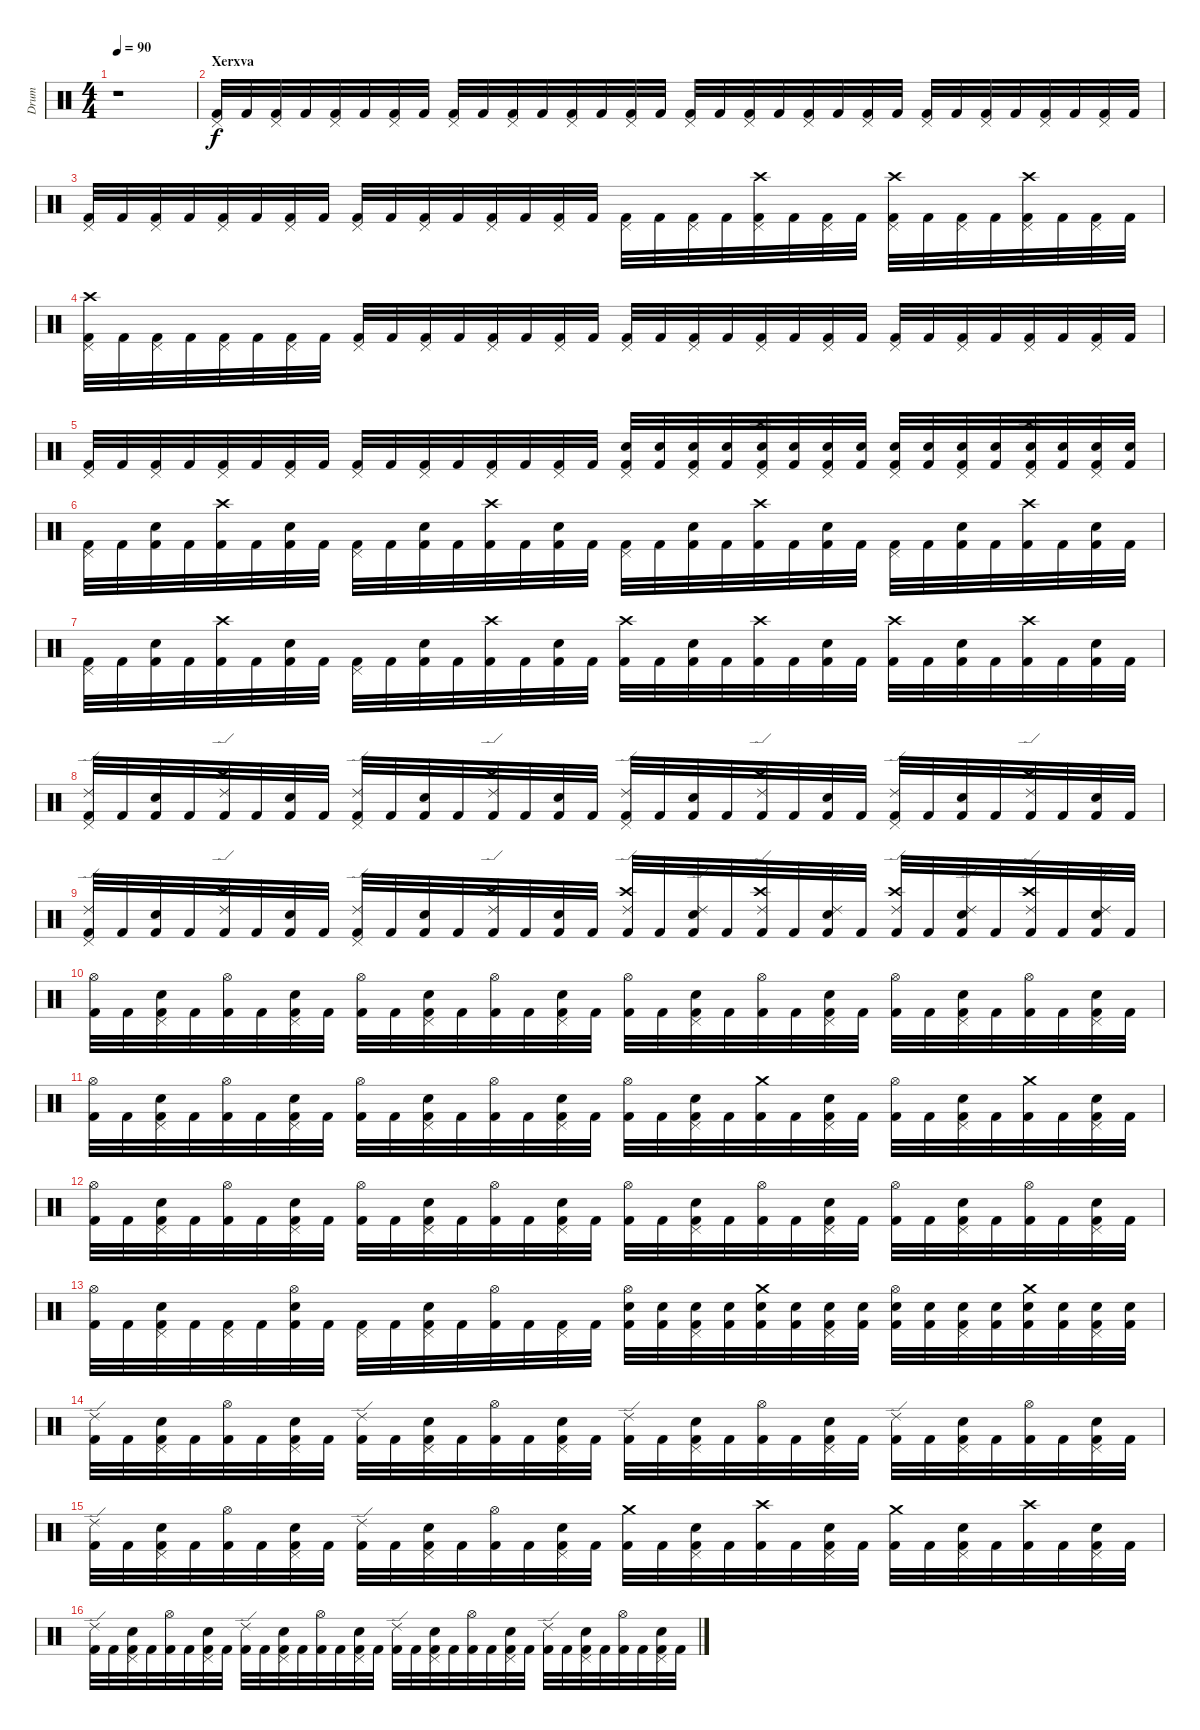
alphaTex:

\track ("Drum" "Drum") {instrument percussion}
\staff {score}
\articulation defaults
\ts (4 4)
\tempo 90
\clef neutral
\ks c
r.1{dy f} |
\section ("" "Xerxva")
("Kick (hit) 2" "Pedal Hi-Hat (hit)").32 "Kick (hit) 2".32 ("Kick (hit) 2" "Pedal Hi-Hat (hit)").32 "Kick (hit) 2".32 ("Kick (hit) 2" "Pedal Hi-Hat (hit)").32 "Kick (hit) 2".32 ("Kick (hit) 2" "Pedal Hi-Hat (hit)").32 "Kick (hit) 2".32 ("Kick (hit) 2" "Pedal Hi-Hat (hit)").32 "Kick (hit) 2".32 ("Kick (hit) 2" "Pedal Hi-Hat (hit)").32 "Kick (hit) 2".32 ("Kick (hit) 2" "Pedal Hi-Hat (hit)").32 "Kick (hit) 2".32 ("Kick (hit) 2" "Pedal Hi-Hat (hit)").32 "Kick (hit) 2".32 ("Kick (hit) 2" "Pedal Hi-Hat (hit)").32 "Kick (hit) 2".32 ("Kick (hit) 2" "Pedal Hi-Hat (hit)").32 "Kick (hit) 2".32 ("Kick (hit) 2" "Pedal Hi-Hat (hit)").32 "Kick (hit) 2".32 ("Kick (hit) 2" "Pedal Hi-Hat (hit)").32 "Kick (hit) 2".32 ("Kick (hit) 2" "Pedal Hi-Hat (hit)").32 "Kick (hit) 2".32 ("Kick (hit) 2" "Pedal Hi-Hat (hit)").32 "Kick (hit) 2".32 ("Kick (hit) 2" "Pedal Hi-Hat (hit)").32 "Kick (hit) 2".32 ("Kick (hit) 2" "Pedal Hi-Hat (hit)").32 "Kick (hit) 2".32 |
("Kick (hit) 2" "Pedal Hi-Hat (hit)").32 "Kick (hit) 2".32 ("Kick (hit) 2" "Pedal Hi-Hat (hit)").32 "Kick (hit) 2".32 ("Kick (hit) 2" "Pedal Hi-Hat (hit)").32 "Kick (hit) 2".32 ("Kick (hit) 2" "Pedal Hi-Hat (hit)").32 "Kick (hit) 2".32 ("Kick (hit) 2" "Pedal Hi-Hat (hit)").32 "Kick (hit) 2".32 ("Kick (hit) 2" "Pedal Hi-Hat (hit)").32 "Kick (hit) 2".32 ("Kick (hit) 2" "Pedal Hi-Hat (hit)").32 "Kick (hit) 2".32 ("Kick (hit) 2" "Pedal Hi-Hat (hit)").32 "Kick (hit) 2".32 ("Kick (hit) 2" "Pedal Hi-Hat (hit)").32 "Kick (hit) 2".32 ("Kick (hit) 2" "Pedal Hi-Hat (hit)").32 "Kick (hit) 2".32 ("Kick (hit) 2" "Pedal Hi-Hat (hit)" "Crash high (hit)").32 "Kick (hit) 2".32 ("Kick (hit) 2" "Pedal Hi-Hat (hit)").32 "Kick (hit) 2".32 ("Kick (hit) 2" "Pedal Hi-Hat (hit)" "Crash high (hit)").32 "Kick (hit) 2".32 ("Kick (hit) 2" "Pedal Hi-Hat (hit)").32 "Kick (hit) 2".32 ("Kick (hit) 2" "Pedal Hi-Hat (hit)" "Crash high (hit)").32 "Kick (hit) 2".32 ("Kick (hit) 2" "Pedal Hi-Hat (hit)").32 "Kick (hit) 2".32 |
("Kick (hit) 2" "Pedal Hi-Hat (hit)" "Crash high (hit)").32 "Kick (hit) 2".32 ("Kick (hit) 2" "Pedal Hi-Hat (hit)").32 "Kick (hit) 2".32 ("Kick (hit) 2" "Pedal Hi-Hat (hit)").32 "Kick (hit) 2".32 ("Kick (hit) 2" "Pedal Hi-Hat (hit)").32 "Kick (hit) 2".32 ("Kick (hit) 2" "Pedal Hi-Hat (hit)").32 "Kick (hit) 2".32 ("Kick (hit) 2" "Pedal Hi-Hat (hit)").32 "Kick (hit) 2".32 ("Kick (hit) 2" "Pedal Hi-Hat (hit)").32 "Kick (hit) 2".32 ("Kick (hit) 2" "Pedal Hi-Hat (hit)").32 "Kick (hit) 2".32 ("Kick (hit) 2" "Pedal Hi-Hat (hit)").32 "Kick (hit) 2".32 ("Kick (hit) 2" "Pedal Hi-Hat (hit)").32 "Kick (hit) 2".32 ("Kick (hit) 2" "Pedal Hi-Hat (hit)").32 "Kick (hit) 2".32 ("Kick (hit) 2" "Pedal Hi-Hat (hit)").32 "Kick (hit) 2".32 ("Kick (hit) 2" "Pedal Hi-Hat (hit)").32 "Kick (hit) 2".32 ("Kick (hit) 2" "Pedal Hi-Hat (hit)").32 "Kick (hit) 2".32 ("Kick (hit) 2" "Pedal Hi-Hat (hit)").32 "Kick (hit) 2".32 ("Kick (hit) 2" "Pedal Hi-Hat (hit)").32 "Kick (hit) 2".32 |
("Kick (hit) 2" "Pedal Hi-Hat (hit)").32 "Kick (hit) 2".32 ("Kick (hit) 2" "Pedal Hi-Hat (hit)").32 "Kick (hit) 2".32 ("Kick (hit) 2" "Pedal Hi-Hat (hit)").32 "Kick (hit) 2".32 ("Kick (hit) 2" "Pedal Hi-Hat (hit)").32 "Kick (hit) 2".32 ("Kick (hit) 2" "Pedal Hi-Hat (hit)").32 "Kick (hit) 2".32 ("Kick (hit) 2" "Pedal Hi-Hat (hit)").32 "Kick (hit) 2".32 ("Kick (hit) 2" "Pedal Hi-Hat (hit)").32 "Kick (hit) 2".32 ("Kick (hit) 2" "Pedal Hi-Hat (hit)").32 "Kick (hit) 2".32 ("Kick (hit) 2" "Pedal Hi-Hat (hit)" "Snare (hit) 2").32 ("Kick (hit) 2" "Snare (hit) 2").32 ("Kick (hit) 2" "Pedal Hi-Hat (hit)" "Snare (hit) 2").32 ("Kick (hit) 2" "Snare (hit) 2").32 ("Kick (hit) 2" "Pedal Hi-Hat (hit)" "Snare (hit) 2" "Crash high (hit)").32 ("Kick (hit) 2" "Snare (hit) 2").32 ("Kick (hit) 2" "Pedal Hi-Hat (hit)" "Snare (hit) 2").32 ("Kick (hit) 2" "Snare (hit) 2").32 ("Kick (hit) 2" "Pedal Hi-Hat (hit)" "Snare (hit) 2").32 ("Kick (hit) 2" "Snare (hit) 2").32 ("Kick (hit) 2" "Pedal Hi-Hat (hit)" "Snare (hit) 2").32 ("Kick (hit) 2" "Snare (hit) 2").32 ("Kick (hit) 2" "Pedal Hi-Hat (hit)" "Snare (hit) 2" "Crash high (hit)").32 ("Kick (hit) 2" "Snare (hit) 2").32 ("Kick (hit) 2" "Pedal Hi-Hat (hit)" "Snare (hit) 2").32 ("Kick (hit) 2" "Snare (hit) 2").32 |
("Kick (hit) 2" "Pedal Hi-Hat (hit)").32 "Kick (hit) 2".32 ("Kick (hit) 2" "Snare (hit) 2").32 "Kick (hit) 2".32 ("Kick (hit) 2" "Crash high (hit)").32 "Kick (hit) 2".32 ("Kick (hit) 2" "Snare (hit) 2").32 "Kick (hit) 2".32 ("Kick (hit) 2" "Pedal Hi-Hat (hit)").32 "Kick (hit) 2".32 ("Kick (hit) 2" "Snare (hit) 2").32 "Kick (hit) 2".32 ("Kick (hit) 2" "Crash high (hit)").32 "Kick (hit) 2".32 ("Kick (hit) 2" "Snare (hit) 2").32 "Kick (hit) 2".32 ("Kick (hit) 2" "Pedal Hi-Hat (hit)").32 "Kick (hit) 2".32 ("Kick (hit) 2" "Snare (hit) 2").32 "Kick (hit) 2".32 ("Kick (hit) 2" "Crash high (hit)").32 "Kick (hit) 2".32 ("Kick (hit) 2" "Snare (hit) 2").32 "Kick (hit) 2".32 ("Kick (hit) 2" "Pedal Hi-Hat (hit)").32 "Kick (hit) 2".32 ("Kick (hit) 2" "Snare (hit) 2").32 "Kick (hit) 2".32 ("Kick (hit) 2" "Crash high (hit)").32 "Kick (hit) 2".32 ("Kick (hit) 2" "Snare (hit) 2").32 "Kick (hit) 2".32 |
("Kick (hit) 2" "Pedal Hi-Hat (hit)").32 "Kick (hit) 2".32 ("Kick (hit) 2" "Snare (hit) 2").32 "Kick (hit) 2".32 ("Kick (hit) 2" "Crash high (hit)").32 "Kick (hit) 2".32 ("Kick (hit) 2" "Snare (hit) 2").32 "Kick (hit) 2".32 ("Kick (hit) 2" "Pedal Hi-Hat (hit)").32 "Kick (hit) 2".32 ("Kick (hit) 2" "Snare (hit) 2").32 "Kick (hit) 2".32 ("Kick (hit) 2" "Crash high (hit)").32 "Kick (hit) 2".32 ("Kick (hit) 2" "Snare (hit) 2").32 "Kick (hit) 2".32 ("Kick (hit) 2" "Crash high (hit)").32 "Kick (hit) 2".32 ("Kick (hit) 2" "Snare (hit) 2").32 "Kick (hit) 2".32 ("Kick (hit) 2" "Crash high (hit)").32 "Kick (hit) 2".32 ("Kick (hit) 2" "Snare (hit) 2").32 "Kick (hit) 2".32 ("Kick (hit) 2" "Crash high (hit)").32 "Kick (hit) 2".32 ("Kick (hit) 2" "Snare (hit) 2").32 "Kick (hit) 2".32 ("Kick (hit) 2" "Crash high (hit)").32 "Kick (hit) 2".32 ("Kick (hit) 2" "Snare (hit) 2").32 "Kick (hit) 2".32 |
("Kick (hit) 2" "Pedal Hi-Hat (hit)" "Ride (edge) 2").32 "Kick (hit) 2".32 ("Kick (hit) 2" "Snare (hit) 2").32 "Kick (hit) 2".32 ("Kick (hit) 2" "Crash high (hit)" "Ride (edge) 2").32 "Kick (hit) 2".32 ("Kick (hit) 2" "Snare (hit) 2").32 "Kick (hit) 2".32 ("Kick (hit) 2" "Pedal Hi-Hat (hit)" "Ride (edge) 2").32 "Kick (hit) 2".32 ("Kick (hit) 2" "Snare (hit) 2").32 "Kick (hit) 2".32 ("Kick (hit) 2" "Crash high (hit)" "Ride (edge) 2").32 "Kick (hit) 2".32 ("Kick (hit) 2" "Snare (hit) 2").32 "Kick (hit) 2".32 ("Kick (hit) 2" "Pedal Hi-Hat (hit)" "Ride (edge) 2").32 "Kick (hit) 2".32 ("Kick (hit) 2" "Snare (hit) 2").32 "Kick (hit) 2".32 ("Kick (hit) 2" "Crash high (hit)" "Ride (edge) 2").32 "Kick (hit) 2".32 ("Kick (hit) 2" "Snare (hit) 2").32 "Kick (hit) 2".32 ("Kick (hit) 2" "Pedal Hi-Hat (hit)" "Ride (edge) 2").32 "Kick (hit) 2".32 ("Kick (hit) 2" "Snare (hit) 2").32 "Kick (hit) 2".32 ("Kick (hit) 2" "Crash high (hit)" "Ride (edge) 2").32 "Kick (hit) 2".32 ("Kick (hit) 2" "Snare (hit) 2").32 "Kick (hit) 2".32 |
("Kick (hit) 2" "Pedal Hi-Hat (hit)" "Ride (edge) 2").32 "Kick (hit) 2".32 ("Kick (hit) 2" "Snare (hit) 2").32 "Kick (hit) 2".32 ("Kick (hit) 2" "Crash high (hit)" "Ride (edge) 2").32 "Kick (hit) 2".32 ("Kick (hit) 2" "Snare (hit) 2").32 "Kick (hit) 2".32 ("Kick (hit) 2" "Pedal Hi-Hat (hit)" "Ride (edge) 2").32 "Kick (hit) 2".32 ("Kick (hit) 2" "Snare (hit) 2").32 "Kick (hit) 2".32 ("Kick (hit) 2" "Crash high (hit)" "Ride (edge) 2").32 "Kick (hit) 2".32 ("Kick (hit) 2" "Snare (hit) 2").32 "Kick (hit) 2".32 ("Kick (hit) 2" "Crash high (hit)" "Ride (edge) 2").32 "Kick (hit) 2".32 ("Kick (hit) 2" "Snare (hit) 2" "Ride (edge) 2").32 "Kick (hit) 2".32 ("Kick (hit) 2" "Crash high (hit)" "Ride (edge) 2").32 "Kick (hit) 2".32 ("Kick (hit) 2" "Snare (hit) 2" "Ride (edge) 2").32 "Kick (hit) 2".32 ("Kick (hit) 2" "Crash high (hit)" "Ride (edge) 2").32 "Kick (hit) 2".32 ("Kick (hit) 2" "Snare (hit) 2" "Ride (edge) 2").32 "Kick (hit) 2".32 ("Kick (hit) 2" "Crash high (hit)" "Ride (edge) 2").32 "Kick (hit) 2".32 ("Kick (hit) 2" "Snare (hit) 2" "Ride (edge) 2").32 "Kick (hit) 2".32 |
\section ("" "")
("Kick (hit) 2" "Hi-Hat (open)").32 "Kick (hit) 2".32 ("Kick (hit) 2" "Pedal Hi-Hat (hit)" "Snare (hit) 2").32 "Kick (hit) 2".32 ("Kick (hit) 2" "Hi-Hat (open)").32 "Kick (hit) 2".32 ("Kick (hit) 2" "Pedal Hi-Hat (hit)" "Snare (hit) 2").32 "Kick (hit) 2".32 ("Kick (hit) 2" "Hi-Hat (open)").32 "Kick (hit) 2".32 ("Kick (hit) 2" "Pedal Hi-Hat (hit)" "Snare (hit) 2").32 "Kick (hit) 2".32 ("Kick (hit) 2" "Hi-Hat (open)").32 "Kick (hit) 2".32 ("Kick (hit) 2" "Pedal Hi-Hat (hit)" "Snare (hit) 2").32 "Kick (hit) 2".32 ("Kick (hit) 2" "Hi-Hat (open)").32 "Kick (hit) 2".32 ("Kick (hit) 2" "Pedal Hi-Hat (hit)" "Snare (hit) 2").32 "Kick (hit) 2".32 ("Kick (hit) 2" "Hi-Hat (open)").32 "Kick (hit) 2".32 ("Kick (hit) 2" "Pedal Hi-Hat (hit)" "Snare (hit) 2").32 "Kick (hit) 2".32 ("Kick (hit) 2" "Hi-Hat (open)").32 "Kick (hit) 2".32 ("Kick (hit) 2" "Pedal Hi-Hat (hit)" "Snare (hit) 2").32 "Kick (hit) 2".32 ("Kick (hit) 2" "Hi-Hat (open)").32 "Kick (hit) 2".32 ("Kick (hit) 2" "Pedal Hi-Hat (hit)" "Snare (hit) 2").32 "Kick (hit) 2".32 |
("Kick (hit) 2" "Hi-Hat (open)").32 "Kick (hit) 2".32 ("Kick (hit) 2" "Pedal Hi-Hat (hit)" "Snare (hit) 2").32 "Kick (hit) 2".32 ("Kick (hit) 2" "Hi-Hat (open)").32 "Kick (hit) 2".32 ("Kick (hit) 2" "Pedal Hi-Hat (hit)" "Snare (hit) 2").32 "Kick (hit) 2".32 ("Kick (hit) 2" "Hi-Hat (open)").32 "Kick (hit) 2".32 ("Kick (hit) 2" "Pedal Hi-Hat (hit)" "Snare (hit) 2").32 "Kick (hit) 2".32 ("Kick (hit) 2" "Hi-Hat (open)").32 "Kick (hit) 2".32 ("Kick (hit) 2" "Pedal Hi-Hat (hit)" "Snare (hit) 2").32 "Kick (hit) 2".32 ("Kick (hit) 2" "Hi-Hat (open)").32 "Kick (hit) 2".32 ("Kick (hit) 2" "Pedal Hi-Hat (hit)" "Snare (hit) 2").32 "Kick (hit) 2".32 ("Kick (hit) 2" "Crash medium (hit)").32 "Kick (hit) 2".32 ("Kick (hit) 2" "Pedal Hi-Hat (hit)" "Snare (hit) 2").32 "Kick (hit) 2".32 ("Kick (hit) 2" "Hi-Hat (open)").32 "Kick (hit) 2".32 ("Kick (hit) 2" "Pedal Hi-Hat (hit)" "Snare (hit) 2").32 "Kick (hit) 2".32 ("Kick (hit) 2" "Crash medium (hit)").32 "Kick (hit) 2".32 ("Kick (hit) 2" "Pedal Hi-Hat (hit)" "Snare (hit) 2").32 "Kick (hit) 2".32 |
("Kick (hit) 2" "Hi-Hat (open)").32 "Kick (hit) 2".32 ("Kick (hit) 2" "Pedal Hi-Hat (hit)" "Snare (hit) 2").32 "Kick (hit) 2".32 ("Kick (hit) 2" "Hi-Hat (open)").32 "Kick (hit) 2".32 ("Kick (hit) 2" "Pedal Hi-Hat (hit)" "Snare (hit) 2").32 "Kick (hit) 2".32 ("Kick (hit) 2" "Hi-Hat (open)").32 "Kick (hit) 2".32 ("Kick (hit) 2" "Pedal Hi-Hat (hit)" "Snare (hit) 2").32 "Kick (hit) 2".32 ("Kick (hit) 2" "Hi-Hat (open)").32 "Kick (hit) 2".32 ("Kick (hit) 2" "Pedal Hi-Hat (hit)" "Snare (hit) 2").32 "Kick (hit) 2".32 ("Kick (hit) 2" "Hi-Hat (open)").32 "Kick (hit) 2".32 ("Kick (hit) 2" "Pedal Hi-Hat (hit)" "Snare (hit) 2").32 "Kick (hit) 2".32 ("Kick (hit) 2" "Hi-Hat (open)").32 "Kick (hit) 2".32 ("Kick (hit) 2" "Pedal Hi-Hat (hit)" "Snare (hit) 2").32 "Kick (hit) 2".32 ("Kick (hit) 2" "Hi-Hat (open)").32 "Kick (hit) 2".32 ("Kick (hit) 2" "Pedal Hi-Hat (hit)" "Snare (hit) 2").32 "Kick (hit) 2".32 ("Kick (hit) 2" "Hi-Hat (open)").32 "Kick (hit) 2".32 ("Kick (hit) 2" "Pedal Hi-Hat (hit)" "Snare (hit) 2").32 "Kick (hit) 2".32 |
("Kick (hit) 2" "Hi-Hat (open)").32 "Kick (hit) 2".32 ("Kick (hit) 2" "Pedal Hi-Hat (hit)" "Snare (hit) 2").32 "Kick (hit) 2".32 ("Kick (hit) 2" "Pedal Hi-Hat (hit)").32 "Kick (hit) 2".32 ("Kick (hit) 2" "Hi-Hat (open)" "Snare (hit) 2").32 "Kick (hit) 2".32 ("Kick (hit) 2" "Pedal Hi-Hat (hit)").32 "Kick (hit) 2".32 ("Kick (hit) 2" "Pedal Hi-Hat (hit)" "Snare (hit) 2").32 "Kick (hit) 2".32 ("Kick (hit) 2" "Hi-Hat (open)").32 "Kick (hit) 2".32 ("Kick (hit) 2" "Pedal Hi-Hat (hit)").32 "Kick (hit) 2".32 ("Kick (hit) 2" "Hi-Hat (open)" "Snare (hit) 2").32 ("Kick (hit) 2" "Snare (hit) 2").32 ("Kick (hit) 2" "Pedal Hi-Hat (hit)" "Snare (hit) 2").32 ("Kick (hit) 2" "Snare (hit) 2").32 ("Kick (hit) 2" "Crash medium (hit)" "Snare (hit) 2").32 ("Kick (hit) 2" "Snare (hit) 2").32 ("Kick (hit) 2" "Pedal Hi-Hat (hit)" "Snare (hit) 2").32 ("Kick (hit) 2" "Snare (hit) 2").32 ("Kick (hit) 2" "Hi-Hat (open)" "Snare (hit) 2").32 ("Kick (hit) 2" "Snare (hit) 2").32 ("Kick (hit) 2" "Pedal Hi-Hat (hit)" "Snare (hit) 2").32 ("Kick (hit) 2" "Snare (hit) 2").32 ("Kick (hit) 2" "Crash medium (hit)" "Snare (hit) 2").32 ("Kick (hit) 2" "Snare (hit) 2").32 ("Kick (hit) 2" "Pedal Hi-Hat (hit)" "Snare (hit) 2").32 ("Kick (hit) 2" "Snare (hit) 2").32 |
("Kick (hit) 2" "Ride (edge) 2").32 "Kick (hit) 2".32 ("Kick (hit) 2" "Pedal Hi-Hat (hit)" "Snare (hit) 2").32 "Kick (hit) 2".32 ("Kick (hit) 2" "Hi-Hat (open)").32 "Kick (hit) 2".32 ("Kick (hit) 2" "Pedal Hi-Hat (hit)" "Snare (hit) 2").32 "Kick (hit) 2".32 ("Kick (hit) 2" "Ride (edge) 2").32 "Kick (hit) 2".32 ("Kick (hit) 2" "Pedal Hi-Hat (hit)" "Snare (hit) 2").32 "Kick (hit) 2".32 ("Kick (hit) 2" "Hi-Hat (open)").32 "Kick (hit) 2".32 ("Kick (hit) 2" "Pedal Hi-Hat (hit)" "Snare (hit) 2").32 "Kick (hit) 2".32 ("Kick (hit) 2" "Ride (edge) 2").32 "Kick (hit) 2".32 ("Kick (hit) 2" "Pedal Hi-Hat (hit)" "Snare (hit) 2").32 "Kick (hit) 2".32 ("Kick (hit) 2" "Hi-Hat (open)").32 "Kick (hit) 2".32 ("Kick (hit) 2" "Pedal Hi-Hat (hit)" "Snare (hit) 2").32 "Kick (hit) 2".32 ("Kick (hit) 2" "Ride (edge) 2").32 "Kick (hit) 2".32 ("Kick (hit) 2" "Pedal Hi-Hat (hit)" "Snare (hit) 2").32 "Kick (hit) 2".32 ("Kick (hit) 2" "Hi-Hat (open)").32 "Kick (hit) 2".32 ("Kick (hit) 2" "Pedal Hi-Hat (hit)" "Snare (hit) 2").32 "Kick (hit) 2".32 |
("Kick (hit) 2" "Ride (edge) 2").32 "Kick (hit) 2".32 ("Kick (hit) 2" "Pedal Hi-Hat (hit)" "Snare (hit) 2").32 "Kick (hit) 2".32 ("Kick (hit) 2" "Hi-Hat (open)").32 "Kick (hit) 2".32 ("Kick (hit) 2" "Pedal Hi-Hat (hit)" "Snare (hit) 2").32 "Kick (hit) 2".32 ("Kick (hit) 2" "Ride (edge) 2").32 "Kick (hit) 2".32 ("Kick (hit) 2" "Pedal Hi-Hat (hit)" "Snare (hit) 2").32 "Kick (hit) 2".32 ("Kick (hit) 2" "Hi-Hat (open)").32 "Kick (hit) 2".32 ("Kick (hit) 2" "Pedal Hi-Hat (hit)" "Snare (hit) 2").32 "Kick (hit) 2".32 ("Kick (hit) 2" "Crash medium (hit)").32 "Kick (hit) 2".32 ("Kick (hit) 2" "Pedal Hi-Hat (hit)" "Snare (hit) 2").32 "Kick (hit) 2".32 ("Kick (hit) 2" "Crash high (hit)").32 "Kick (hit) 2".32 ("Kick (hit) 2" "Pedal Hi-Hat (hit)" "Snare (hit) 2").32 "Kick (hit) 2".32 ("Kick (hit) 2" "Crash medium (hit)").32 "Kick (hit) 2".32 ("Kick (hit) 2" "Pedal Hi-Hat (hit)" "Snare (hit) 2").32 "Kick (hit) 2".32 ("Kick (hit) 2" "Crash high (hit)").32 "Kick (hit) 2".32 ("Kick (hit) 2" "Pedal Hi-Hat (hit)" "Snare (hit) 2").32 "Kick (hit) 2".32 |
("Kick (hit) 2" "Ride (edge) 2").32 "Kick (hit) 2".32 ("Kick (hit) 2" "Pedal Hi-Hat (hit)" "Snare (hit) 2").32 "Kick (hit) 2".32 ("Kick (hit) 2" "Hi-Hat (open)").32 "Kick (hit) 2".32 ("Kick (hit) 2" "Pedal Hi-Hat (hit)" "Snare (hit) 2").32 "Kick (hit) 2".32 ("Kick (hit) 2" "Ride (edge) 2").32 "Kick (hit) 2".32 ("Kick (hit) 2" "Pedal Hi-Hat (hit)" "Snare (hit) 2").32 "Kick (hit) 2".32 ("Kick (hit) 2" "Hi-Hat (open)").32 "Kick (hit) 2".32 ("Kick (hit) 2" "Pedal Hi-Hat (hit)" "Snare (hit) 2").32 "Kick (hit) 2".32 ("Kick (hit) 2" "Ride (edge) 2").32 "Kick (hit) 2".32 ("Kick (hit) 2" "Pedal Hi-Hat (hit)" "Snare (hit) 2").32 "Kick (hit) 2".32 ("Kick (hit) 2" "Hi-Hat (open)").32 "Kick (hit) 2".32 ("Kick (hit) 2" "Pedal Hi-Hat (hit)" "Snare (hit) 2").32 "Kick (hit) 2".32 ("Kick (hit) 2" "Ride (edge) 2").32 "Kick (hit) 2".32 ("Kick (hit) 2" "Pedal Hi-Hat (hit)" "Snare (hit) 2").32 "Kick (hit) 2".32 ("Kick (hit) 2" "Hi-Hat (open)").32 "Kick (hit) 2".32 ("Kick (hit) 2" "Pedal Hi-Hat (hit)" "Snare (hit) 2").32 "Kick (hit) 2".32
